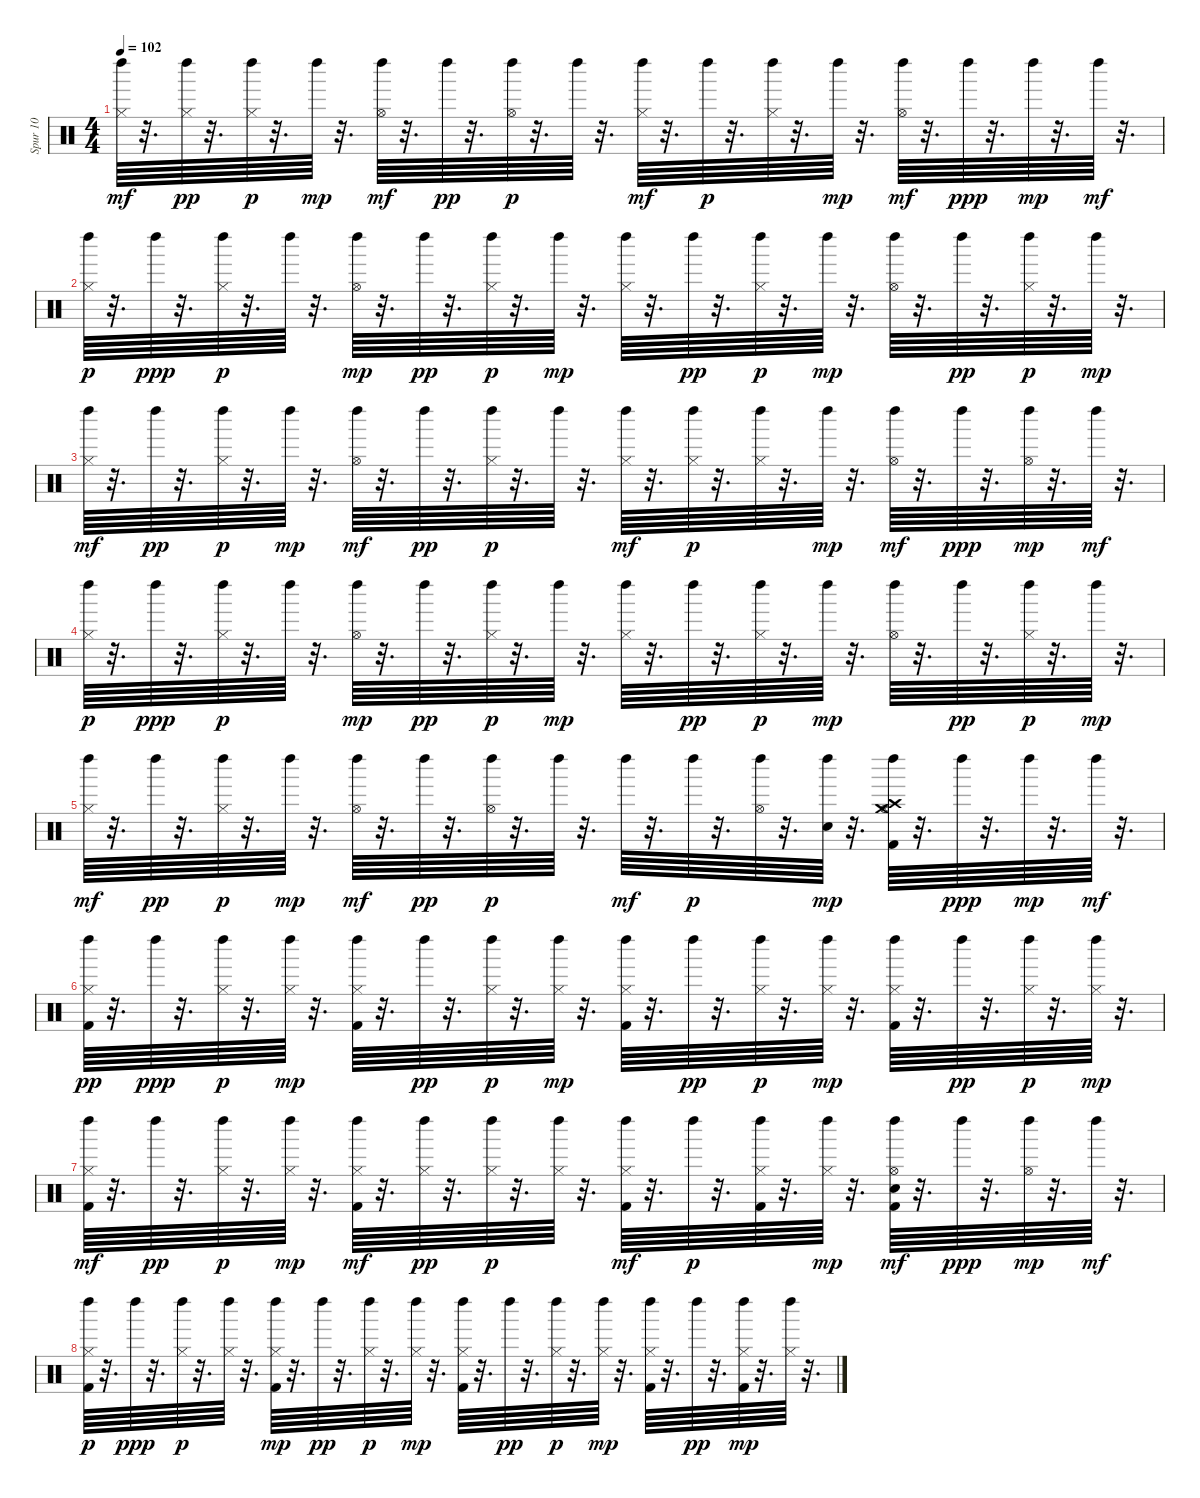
\track ("Spur 10" "Spur 10") {instrument percussion}
\staff {score}
\articulation defaults
\ts (4 4)
\tempo 102
\clef neutral
\ks c
("Hi-Hat (closed)" "Left Maraca (hit)").64{dy mf} r.32{d} ("Hi-Hat (closed)" "Left Maraca (hit)").64{dy pp} r.32{d} ("Hi-Hat (closed)" "Left Maraca (hit)").64{dy p} r.32{d} "Left Maraca (hit)".64{dy mp} r.32{d} ("Hi-Hat (open)" "Left Maraca (hit)").64{dy mf} r.32{d} "Left Maraca (hit)".64{dy pp} r.32{d} ("Hi-Hat (open)" "Left Maraca (hit)").64{dy p} r.32{d} "Left Maraca (hit)".64 r.32{d} ("Hi-Hat (closed)" "Left Maraca (hit)").64{dy mf} r.32{d} "Left Maraca (hit)".64{dy p} r.32{d} ("Hi-Hat (closed)" "Left Maraca (hit)").64 r.32{d} "Left Maraca (hit)".64{dy mp} r.32{d} ("Hi-Hat (open)" "Left Maraca (hit)").64{dy mf} r.32{d} "Left Maraca (hit)".64{dy ppp} r.32{d} "Left Maraca (hit)".64{dy mp} r.32{d} "Left Maraca (hit)".64{dy mf} r.32{d} |
("Hi-Hat (closed)" "Left Maraca (hit)").64{dy p} r.32{d} "Left Maraca (hit)".64{dy ppp} r.32{d} ("Hi-Hat (closed)" "Left Maraca (hit)").64{dy p} r.32{d} "Left Maraca (hit)".64 r.32{d} ("Hi-Hat (open)" "Left Maraca (hit)").64{dy mp} r.32{d} "Left Maraca (hit)".64{dy pp} r.32{d} ("Hi-Hat (closed)" "Left Maraca (hit)").64{dy p} r.32{d} "Left Maraca (hit)".64{dy mp} r.32{d} ("Hi-Hat (closed)" "Left Maraca (hit)").64 r.32{d} "Left Maraca (hit)".64{dy pp} r.32{d} ("Hi-Hat (closed)" "Left Maraca (hit)").64{dy p} r.32{d} "Left Maraca (hit)".64{dy mp} r.32{d} ("Hi-Hat (open)" "Left Maraca (hit)").64 r.32{d} "Left Maraca (hit)".64{dy pp} r.32{d} ("Hi-Hat (closed)" "Left Maraca (hit)").64{dy p} r.32{d} "Left Maraca (hit)".64{dy mp} r.32{d} |
("Hi-Hat (closed)" "Left Maraca (hit)").64{dy mf} r.32{d} "Left Maraca (hit)".64{dy pp} r.32{d} ("Hi-Hat (closed)" "Left Maraca (hit)").64{dy p} r.32{d} "Left Maraca (hit)".64{dy mp} r.32{d} ("Hi-Hat (open)" "Left Maraca (hit)").64{dy mf} r.32{d} "Left Maraca (hit)".64{dy pp} r.32{d} ("Hi-Hat (closed)" "Left Maraca (hit)").64{dy p} r.32{d} "Left Maraca (hit)".64 r.32{d} ("Hi-Hat (closed)" "Left Maraca (hit)").64{dy mf} r.32{d} ("Hi-Hat (closed)" "Left Maraca (hit)").64{dy p} r.32{d} ("Hi-Hat (closed)" "Left Maraca (hit)").64 r.32{d} "Left Maraca (hit)".64{dy mp} r.32{d} ("Hi-Hat (open)" "Left Maraca (hit)").64{dy mf} r.32{d} "Left Maraca (hit)".64{dy ppp} r.32{d} ("Hi-Hat (open)" "Left Maraca (hit)").64{dy mp} r.32{d} "Left Maraca (hit)".64{dy mf} r.32{d} |
("Hi-Hat (closed)" "Left Maraca (hit)").64{dy p} r.32{d} "Left Maraca (hit)".64{dy ppp} r.32{d} ("Hi-Hat (closed)" "Left Maraca (hit)").64{dy p} r.32{d} "Left Maraca (hit)".64 r.32{d} ("Hi-Hat (open)" "Left Maraca (hit)").64{dy mp} r.32{d} "Left Maraca (hit)".64{dy pp} r.32{d} ("Hi-Hat (closed)" "Left Maraca (hit)").64{dy p} r.32{d} "Left Maraca (hit)".64{dy mp} r.32{d} ("Hi-Hat (closed)" "Left Maraca (hit)").64 r.32{d} "Left Maraca (hit)".64{dy pp} r.32{d} ("Hi-Hat (closed)" "Left Maraca (hit)").64{dy p} r.32{d} "Left Maraca (hit)".64{dy mp} r.32{d} ("Hi-Hat (open)" "Left Maraca (hit)").64 r.32{d} "Left Maraca (hit)".64{dy pp} r.32{d} ("Hi-Hat (closed)" "Left Maraca (hit)").64{dy p} r.32{d} "Left Maraca (hit)".64{dy mp} r.32{d} |
("Hi-Hat (closed)" "Left Maraca (hit)").64{dy mf} r.32{d} "Left Maraca (hit)".64{dy pp} r.32{d} ("Hi-Hat (closed)" "Left Maraca (hit)").64{dy p} r.32{d} "Left Maraca (hit)".64{dy mp} r.32{d} ("Hi-Hat (open)" "Left Maraca (hit)").64{dy mf} r.32{d} "Left Maraca (hit)".64{dy pp} r.32{d} ("Hi-Hat (open)" "Left Maraca (hit)").64{dy p} r.32{d} "Left Maraca (hit)".64 r.32{d} "Left Maraca (hit)".64{dy mf} r.32{d} "Left Maraca (hit)".64{dy p} r.32{d} ("Hi-Hat (open)" "Left Maraca (hit)").64 r.32{d} ("Left Maraca (hit)" "Snare (hit) 2").64{dy mp} r.32{d} ("Hi-Hat (open)" "Kick (hit) 2" "Left Maraca (hit)" "Crash medium (hit)" "Crash high (hit)").64 r.32{d} "Left Maraca (hit)".64{dy ppp} r.32{d} "Left Maraca (hit)".64{dy mp} r.32{d} "Left Maraca (hit)".64{dy mf} r.32{d} |
("Kick (hit) 2" "Left Maraca (hit)" "Hi-Hat (closed)").64{dy pp} r.32{d} "Left Maraca (hit)".64{dy ppp} r.32{d} ("Hi-Hat (closed)" "Left Maraca (hit)").64{dy p} r.32{d} ("Left Maraca (hit)" "Hi-Hat (closed)").64{dy mp} r.32{d} ("Kick (hit) 2" "Hi-Hat (closed)" "Left Maraca (hit)").64 r.32{d} "Left Maraca (hit)".64{dy pp} r.32{d} ("Hi-Hat (closed)" "Left Maraca (hit)").64{dy p} r.32{d} ("Hi-Hat (closed)" "Left Maraca (hit)").64{dy mp} r.32{d} ("Hi-Hat (closed)" "Left Maraca (hit)" "Kick (hit) 2").64 r.32{d} "Left Maraca (hit)".64{dy pp} r.32{d} ("Hi-Hat (closed)" "Left Maraca (hit)").64{dy p} r.32{d} ("Hi-Hat (closed)" "Left Maraca (hit)").64{dy mp} r.32{d} ("Hi-Hat (closed)" "Kick (hit) 2" "Left Maraca (hit)").64 r.32{d} "Left Maraca (hit)".64{dy pp} r.32{d} ("Hi-Hat (closed)" "Left Maraca (hit)").64{dy p} r.32{d} ("Hi-Hat (closed)" "Left Maraca (hit)").64{dy mp} r.32{d} |
("Kick (hit) 2" "Hi-Hat (closed)" "Left Maraca (hit)").64{dy mf} r.32{d} "Left Maraca (hit)".64{dy pp} r.32{d} ("Hi-Hat (closed)" "Left Maraca (hit)").64{dy p} r.32{d} ("Hi-Hat (closed)" "Left Maraca (hit)").64{dy mp} r.32{d} ("Kick (hit) 2" "Hi-Hat (closed)" "Left Maraca (hit)").64{dy mf} r.32{d} ("Hi-Hat (closed)" "Left Maraca (hit)").64{dy pp} r.32{d} ("Hi-Hat (closed)" "Left Maraca (hit)").64{dy p} r.32{d} ("Hi-Hat (closed)" "Left Maraca (hit)").64 r.32{d} ("Kick (hit) 2" "Left Maraca (hit)" "Hi-Hat (closed)").64{dy mf} r.32{d} "Left Maraca (hit)".64{dy p} r.32{d} ("Kick (hit) 2" "Left Maraca (hit)" "Hi-Hat (closed)").64 r.32{d} ("Hi-Hat (closed)" "Left Maraca (hit)").64{dy mp} r.32{d} ("Hi-Hat (open)" "Snare (hit) 2" "Kick (hit) 2" "Left Maraca (hit)").64{dy mf} r.32{d} "Left Maraca (hit)".64{dy ppp} r.32{d} ("Hi-Hat (open)" "Left Maraca (hit)").64{dy mp} r.32{d} "Left Maraca (hit)".64{dy mf} r.32{d} |
("Kick (hit) 2" "Left Maraca (hit)" "Hi-Hat (closed)").64{dy p} r.32{d} "Left Maraca (hit)".64{dy ppp} r.32{d} ("Hi-Hat (closed)" "Left Maraca (hit)").64{dy p} r.32{d} ("Hi-Hat (closed)" "Left Maraca (hit)").64 r.32{d} ("Kick (hit) 2" "Hi-Hat (closed)" "Left Maraca (hit)").64{dy mp} r.32{d} "Left Maraca (hit)".64{dy pp} r.32{d} ("Hi-Hat (closed)" "Left Maraca (hit)").64{dy p} r.32{d} ("Hi-Hat (closed)" "Left Maraca (hit)").64{dy mp} r.32{d} ("Hi-Hat (closed)" "Left Maraca (hit)" "Kick (hit) 2").64 r.32{d} "Left Maraca (hit)".64{dy pp} r.32{d} ("Hi-Hat (closed)" "Left Maraca (hit)").64{dy p} r.32{d} ("Left Maraca (hit)" "Hi-Hat (closed)").64{dy mp} r.32{d} ("Left Maraca (hit)" "Kick (hit) 2" "Hi-Hat (closed)").64 r.32{d} "Left Maraca (hit)".64{dy pp} r.32{d} ("Left Maraca (hit)" "Kick (hit) 2" "Hi-Hat (closed)").64{dy mp} r.32{d} ("Hi-Hat (closed)" "Left Maraca (hit)").64 r.32{d}
